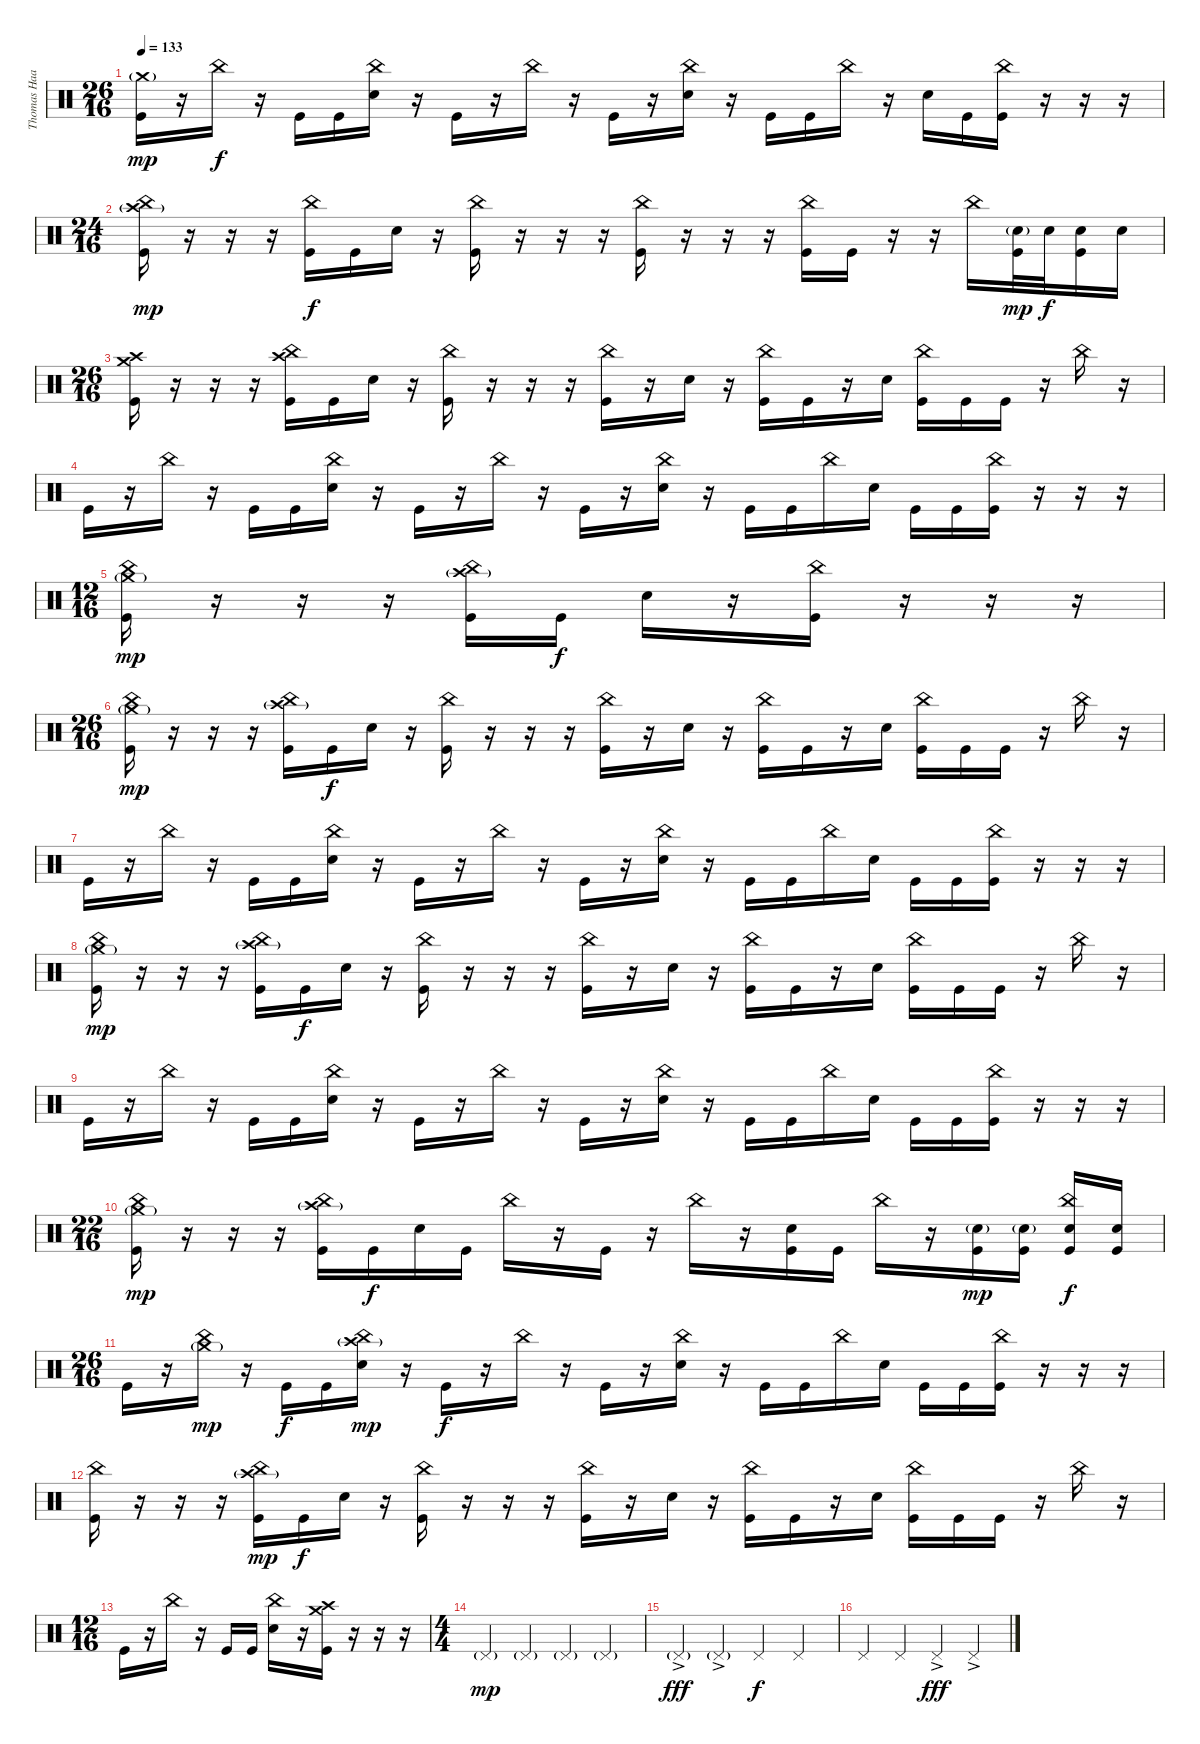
\track ("Thomas Haake" "Thomas Haa") {instrument percussion}
\staff {score}
\articulation defaults
\ts (26 16)
\tempo 133
\clef neutral
\ks c
("Crash medium (hit)"{g} "Kick (hit)").16{dy mp} r.16 "China (hit)".16{dy f} r.16 "Kick (hit)".16 "Kick (hit)".16 ("China (hit)" "Snare (hit) 2").16 r.16 "Kick (hit)".16 r.16 "China (hit)".16 r.16 "Kick (hit)".16 r.16 ("China (hit)" "Snare (hit) 2").16 r.16 "Kick (hit)".16 "Kick (hit)".16 "China (hit)".16 r.16 "Snare (hit) 2".16 "Kick (hit)".16 ("China (hit)" "Kick (hit)").16 r.16 r.16 r.16 |
\ts (24 16)
("China (hit)" "Crash high (hit)"{g} "Kick (hit)").16{dy mp} r.16 r.16 r.16 ("China (hit)" "Kick (hit)").16{dy f} "Kick (hit)".16 "Snare (hit) 2".16 r.16 ("China (hit)" "Kick (hit)").16 r.16 r.16 r.16 ("China (hit)" "Kick (hit)").16 r.16 r.16 r.16 ("China (hit)" "Kick (hit)").16 "Kick (hit)".16 r.16 r.16 "China (hit)".16 ("Snare (hit) 2"{g} "Kick (hit)").32{dy mp} "Snare (hit) 2".32{dy f} ("Snare (hit) 2" "Kick (hit)").16 "Snare (hit) 2".16 |
\ts (26 16)
("Crash high (hit)" "Crash medium (hit)" "Kick (hit)").16 r.16 r.16 r.16 ("China (hit)" "Crash high (hit)" "Kick (hit)").16 "Kick (hit)".16 "Snare (hit) 2".16 r.16 ("China (hit)" "Kick (hit)").16 r.16 r.16 r.16 ("China (hit)" "Kick (hit)").16 r.16 "Snare (hit) 2".16 r.16 ("China (hit)" "Kick (hit)").16 "Kick (hit)".16 r.16 "Snare (hit) 2".16 ("China (hit)" "Kick (hit)").16 "Kick (hit)".16 "Kick (hit)".16 r.16 "China (hit)".16 r.16 |
"Kick (hit)".16 r.16 "China (hit)".16 r.16 "Kick (hit)".16 "Kick (hit)".16 ("China (hit)" "Snare (hit) 2").16 r.16 "Kick (hit)".16 r.16 "China (hit)".16 r.16 "Kick (hit)".16 r.16 ("China (hit)" "Snare (hit) 2").16 r.16 "Kick (hit)".16 "Kick (hit)".16 "China (hit)".16 "Snare (hit) 2".16 "Kick (hit)".16 "Kick (hit)".16 ("China (hit)" "Kick (hit)").16 r.16 r.16 r.16 |
\ts (12 16)
("Crash medium (hit)"{g} "China (hit)" "Kick (hit)").16{dy mp} r.16 r.16 r.16 ("Crash high (hit)"{g} "China (hit)" "Kick (hit)").16 "Kick (hit)".16{dy f} "Snare (hit) 2".16 r.16 ("China (hit)" "Kick (hit)").16 r.16 r.16 r.16 |
\ts (26 16)
("Crash medium (hit)"{g} "China (hit)" "Kick (hit)").16{dy mp} r.16 r.16 r.16 ("Crash high (hit)"{g} "China (hit)" "Kick (hit)").16 "Kick (hit)".16{dy f} "Snare (hit) 2".16 r.16 ("China (hit)" "Kick (hit)").16 r.16 r.16 r.16 ("China (hit)" "Kick (hit)").16 r.16 "Snare (hit) 2".16 r.16 ("China (hit)" "Kick (hit)").16 "Kick (hit)".16 r.16 "Snare (hit) 2".16 ("China (hit)" "Kick (hit)").16 "Kick (hit)".16 "Kick (hit)".16 r.16 "China (hit)".16 r.16 |
"Kick (hit)".16 r.16 "China (hit)".16 r.16 "Kick (hit)".16 "Kick (hit)".16 ("China (hit)" "Snare (hit) 2").16 r.16 "Kick (hit)".16 r.16 "China (hit)".16 r.16 "Kick (hit)".16 r.16 ("China (hit)" "Snare (hit) 2").16 r.16 "Kick (hit)".16 "Kick (hit)".16 "China (hit)".16 "Snare (hit) 2".16 "Kick (hit)".16 "Kick (hit)".16 ("China (hit)" "Kick (hit)").16 r.16 r.16 r.16 |
("Crash medium (hit)"{g} "China (hit)" "Kick (hit)").16{dy mp} r.16 r.16 r.16 ("Crash high (hit)"{g} "China (hit)" "Kick (hit)").16 "Kick (hit)".16{dy f} "Snare (hit) 2".16 r.16 ("China (hit)" "Kick (hit)").16 r.16 r.16 r.16 ("China (hit)" "Kick (hit)").16 r.16 "Snare (hit) 2".16 r.16 ("China (hit)" "Kick (hit)").16 "Kick (hit)".16 r.16 "Snare (hit) 2".16 ("China (hit)" "Kick (hit)").16 "Kick (hit)".16 "Kick (hit)".16 r.16 "China (hit)".16 r.16 |
"Kick (hit)".16 r.16 "China (hit)".16 r.16 "Kick (hit)".16 "Kick (hit)".16 ("China (hit)" "Snare (hit) 2").16 r.16 "Kick (hit)".16 r.16 "China (hit)".16 r.16 "Kick (hit)".16 r.16 ("China (hit)" "Snare (hit) 2").16 r.16 "Kick (hit)".16 "Kick (hit)".16 "China (hit)".16 "Snare (hit) 2".16 "Kick (hit)".16 "Kick (hit)".16 ("China (hit)" "Kick (hit)").16 r.16 r.16 r.16 |
\ts (22 16)
("Crash medium (hit)"{g} "China (hit)" "Kick (hit)").16{dy mp} r.16 r.16 r.16 ("Crash high (hit)"{g} "China (hit)" "Kick (hit)").16 "Kick (hit)".16{dy f} "Snare (hit) 2".16 "Kick (hit)".16 "China (hit)".16 r.16 "Kick (hit)".16 r.16 "China (hit)".16 r.16 ("Snare (hit) 2" "Kick (hit)").16 "Kick (hit)".16 "China (hit)".16 r.16 ("Snare (hit) 2"{g} "Kick (hit)").16{dy mp} ("Snare (hit) 2"{g} "Kick (hit)").16 ("China (hit)" "Snare (hit) 2" "Kick (hit)").16{dy f} ("Snare (hit) 2" "Kick (hit)").16 |
\ts (26 16)
"Kick (hit)".16 r.16 ("Crash medium (hit)"{g} "China (hit)").16{dy mp} r.16 "Kick (hit)".16{dy f} "Kick (hit)".16 ("Crash high (hit)"{g} "China (hit)" "Snare (hit) 2").16{dy mp} r.16 "Kick (hit)".16{dy f} r.16 "China (hit)".16 r.16 "Kick (hit)".16 r.16 ("China (hit)" "Snare (hit) 2").16 r.16 "Kick (hit)".16 "Kick (hit)".16 "China (hit)".16 "Snare (hit) 2".16 "Kick (hit)".16 "Kick (hit)".16 ("China (hit)" "Kick (hit)").16 r.16 r.16 r.16 |
("China (hit)" "Kick (hit)").16 r.16 r.16 r.16 ("Crash high (hit)"{g} "China (hit)" "Kick (hit)").16{dy mp} "Kick (hit)".16{dy f} "Snare (hit) 2".16 r.16 ("China (hit)" "Kick (hit)").16 r.16 r.16 r.16 ("China (hit)" "Kick (hit)").16 r.16 "Snare (hit) 2".16 r.16 ("China (hit)" "Kick (hit)").16 "Kick (hit)".16 r.16 "Snare (hit) 2".16 ("China (hit)" "Kick (hit)").16 "Kick (hit)".16 "Kick (hit)".16 r.16 "China (hit)".16 r.16 |
\ts (12 16)
"Kick (hit)".16 r.16 "China (hit)".16 r.16 "Kick (hit)".16 "Kick (hit)".16 ("China (hit)" "Snare (hit) 2").16 r.16 ("Crash high (hit)" "Crash medium (hit)" "Kick (hit)").16 r.16 r.16 r.16 |
\ts (4 4)
"Pedal Hi-Hat (hit)"{g}.4{dy mp} "Pedal Hi-Hat (hit)"{g}.4 "Pedal Hi-Hat (hit)"{g}.4 "Pedal Hi-Hat (hit)"{g}.4 |
"Pedal Hi-Hat (hit)"{g ac}.4{dy fff} "Pedal Hi-Hat (hit)"{g ac}.4 "Pedal Hi-Hat (hit)".4{dy f} "Pedal Hi-Hat (hit)".4 |
"Pedal Hi-Hat (hit)".4 "Pedal Hi-Hat (hit)".4 "Pedal Hi-Hat (hit)"{ac}.4{dy fff} "Pedal Hi-Hat (hit)"{ac}.4
